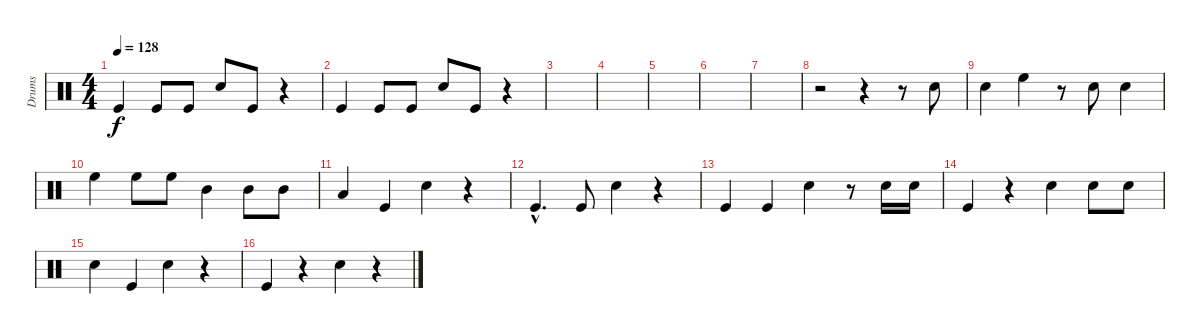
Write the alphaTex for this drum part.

\track ("Drums" "Drums") {instrument percussion}
\staff {score}
\articulation defaults
\ts (4 4)
\tempo 128
\clef neutral
\ks c "Kick (hit)".4{dy f} "Kick (hit)".8 "Kick (hit)".8 "Snare (hit) 2".8 "Kick (hit)".8
r.4 |
"Kick (hit)".4 "Kick (hit)".8 "Kick (hit)".8 "Snare (hit) 2".8 "Kick (hit)".8 r.4 |
|
|
|
|
|
r.2 r.4 r.8 "Snare (hit) 2".8 |
"Snare (hit) 2".4 "High Floor Tom (hit)".4 r.8 "Snare (hit) 2".8 "Snare (hit) 2".4 |
"High Floor Tom (hit)".4 "High Floor Tom (hit)".8 "High Floor Tom (hit)".8 "Mid Tom (hit)".4 "Mid Tom (hit)".8 "Mid Tom (hit)".8 |
"Low Floor Tom (hit)".4 "Kick (hit)".4 "Snare (hit) 2".4 r.4 |
"Kick (hit)"{hac}.4{d} "Kick (hit)".8 "Snare (hit) 2".4 r.4 |
"Kick (hit)".4 "Kick (hit)".4 "Snare (hit) 2".4 r.8 "Snare (hit) 2".16 "Snare (hit) 2".16 |
"Kick (hit)".4 r.4 "Snare (hit) 2".4 "Snare (hit) 2".8 "Snare (hit) 2".8 |
"Snare (hit) 2".4 "Kick (hit)".4 "Snare (hit) 2".4 r.4 |
"Kick (hit)".4 r.4 "Snare (hit) 2".4 r.4
